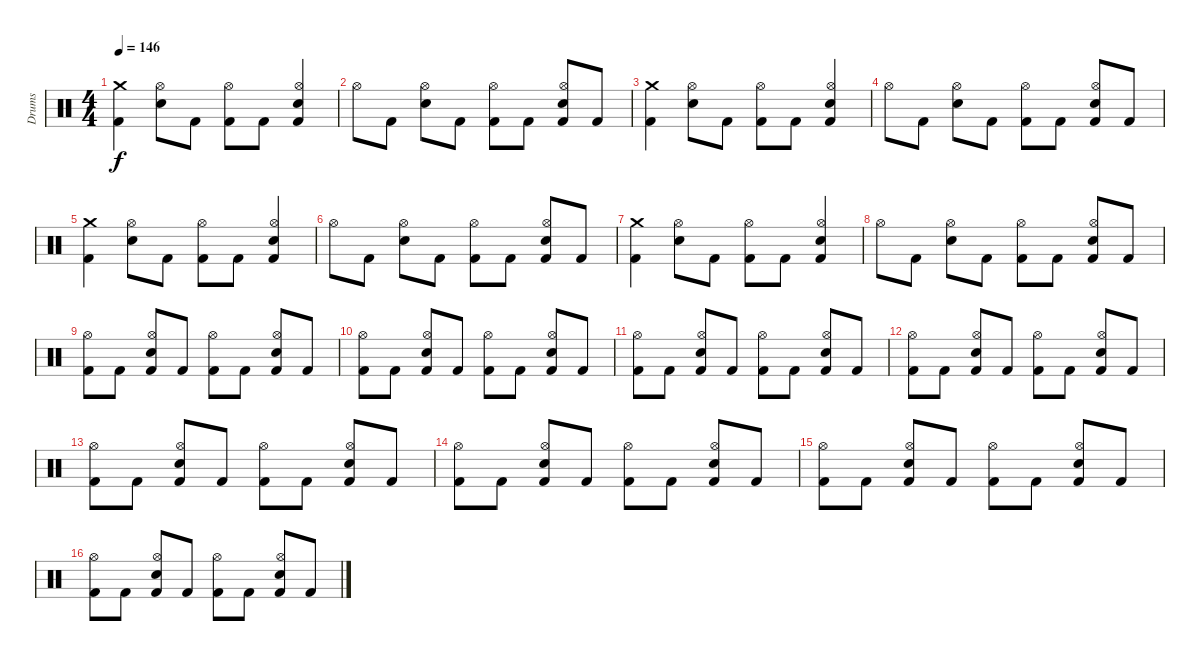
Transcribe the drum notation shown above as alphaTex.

\track ("Drums" "Drums") {instrument percussion}
\staff {score}
\articulation defaults
\ts (4 4)
\tempo 146
\clef neutral
\ks c
("Crash medium (hit)" "Kick (hit) 2").4{dy f} ("Hi-Hat (open)" "Snare (hit) 2").8 "Kick (hit) 2".8 ("Hi-Hat (open)" "Kick (hit) 2").8 "Kick (hit) 2".8 ("Hi-Hat (open)" "Snare (hit) 2" "Kick (hit) 2").4 |
"Hi-Hat (open)".8 "Kick (hit) 2".8 ("Hi-Hat (open)" "Snare (hit) 2").8 "Kick (hit) 2".8 ("Hi-Hat (open)" "Kick (hit) 2").8 "Kick (hit) 2".8 ("Hi-Hat (open)" "Snare (hit) 2" "Kick (hit) 2").8 "Kick (hit) 2".8 |
("Crash medium (hit)" "Kick (hit) 2").4 ("Hi-Hat (open)" "Snare (hit) 2").8 "Kick (hit) 2".8 ("Hi-Hat (open)" "Kick (hit) 2").8 "Kick (hit) 2".8 ("Hi-Hat (open)" "Snare (hit) 2" "Kick (hit) 2").4 |
"Hi-Hat (open)".8 "Kick (hit) 2".8 ("Hi-Hat (open)" "Snare (hit) 2").8 "Kick (hit) 2".8 ("Hi-Hat (open)" "Kick (hit) 2").8 "Kick (hit) 2".8 ("Hi-Hat (open)" "Snare (hit) 2" "Kick (hit) 2").8 "Kick (hit) 2".8 |
("Crash medium (hit)" "Kick (hit) 2").4 ("Hi-Hat (open)" "Snare (hit) 2").8 "Kick (hit) 2".8 ("Hi-Hat (open)" "Kick (hit) 2").8 "Kick (hit) 2".8 ("Hi-Hat (open)" "Snare (hit) 2" "Kick (hit) 2").4 |
"Hi-Hat (open)".8 "Kick (hit) 2".8 ("Hi-Hat (open)" "Snare (hit) 2").8 "Kick (hit) 2".8 ("Hi-Hat (open)" "Kick (hit) 2").8 "Kick (hit) 2".8 ("Hi-Hat (open)" "Snare (hit) 2" "Kick (hit) 2").8 "Kick (hit) 2".8 |
("Crash medium (hit)" "Kick (hit) 2").4 ("Hi-Hat (open)" "Snare (hit) 2").8 "Kick (hit) 2".8 ("Hi-Hat (open)" "Kick (hit) 2").8 "Kick (hit) 2".8 ("Hi-Hat (open)" "Snare (hit) 2" "Kick (hit) 2").4 |
"Hi-Hat (open)".8 "Kick (hit) 2".8 ("Hi-Hat (open)" "Snare (hit) 2").8 "Kick (hit) 2".8 ("Hi-Hat (open)" "Kick (hit) 2").8 "Kick (hit) 2".8 ("Hi-Hat (open)" "Snare (hit) 2" "Kick (hit) 2").8 "Kick (hit) 2".8 |
("Hi-Hat (open)" "Kick (hit) 2").8 "Kick (hit) 2".8 ("Hi-Hat (open)" "Snare (hit) 2" "Kick (hit) 2").8 "Kick (hit) 2".8 ("Hi-Hat (open)" "Kick (hit) 2").8 "Kick (hit) 2".8 ("Hi-Hat (open)" "Snare (hit) 2" "Kick (hit) 2").8 "Kick (hit) 2".8 |
("Hi-Hat (open)" "Kick (hit) 2").8 "Kick (hit) 2".8 ("Hi-Hat (open)" "Snare (hit) 2" "Kick (hit) 2").8 "Kick (hit) 2".8 ("Hi-Hat (open)" "Kick (hit) 2").8 "Kick (hit) 2".8 ("Hi-Hat (open)" "Snare (hit) 2" "Kick (hit) 2").8 "Kick (hit) 2".8 |
("Hi-Hat (open)" "Kick (hit) 2").8 "Kick (hit) 2".8 ("Hi-Hat (open)" "Snare (hit) 2" "Kick (hit) 2").8 "Kick (hit) 2".8 ("Hi-Hat (open)" "Kick (hit) 2").8 "Kick (hit) 2".8 ("Hi-Hat (open)" "Snare (hit) 2" "Kick (hit) 2").8 "Kick (hit) 2".8 |
("Hi-Hat (open)" "Kick (hit) 2").8 "Kick (hit) 2".8 ("Hi-Hat (open)" "Snare (hit) 2" "Kick (hit) 2").8 "Kick (hit) 2".8 ("Hi-Hat (open)" "Kick (hit) 2").8 "Kick (hit) 2".8 ("Hi-Hat (open)" "Snare (hit) 2" "Kick (hit) 2").8 "Kick (hit) 2".8 |
("Hi-Hat (open)" "Kick (hit) 2").8 "Kick (hit) 2".8 ("Hi-Hat (open)" "Snare (hit) 2" "Kick (hit) 2").8 "Kick (hit) 2".8 ("Hi-Hat (open)" "Kick (hit) 2").8 "Kick (hit) 2".8 ("Hi-Hat (open)" "Snare (hit) 2" "Kick (hit) 2").8 "Kick (hit) 2".8 |
("Hi-Hat (open)" "Kick (hit) 2").8 "Kick (hit) 2".8 ("Hi-Hat (open)" "Snare (hit) 2" "Kick (hit) 2").8 "Kick (hit) 2".8 ("Hi-Hat (open)" "Kick (hit) 2").8 "Kick (hit) 2".8 ("Hi-Hat (open)" "Snare (hit) 2" "Kick (hit) 2").8 "Kick (hit) 2".8 |
("Hi-Hat (open)" "Kick (hit) 2").8 "Kick (hit) 2".8 ("Hi-Hat (open)" "Snare (hit) 2" "Kick (hit) 2").8 "Kick (hit) 2".8 ("Hi-Hat (open)" "Kick (hit) 2").8 "Kick (hit) 2".8 ("Hi-Hat (open)" "Snare (hit) 2" "Kick (hit) 2").8 "Kick (hit) 2".8 |
("Hi-Hat (open)" "Kick (hit) 2").8 "Kick (hit) 2".8 ("Hi-Hat (open)" "Snare (hit) 2" "Kick (hit) 2").8 "Kick (hit) 2".8 ("Hi-Hat (open)" "Kick (hit) 2").8 "Kick (hit) 2".8 ("Hi-Hat (open)" "Snare (hit) 2" "Kick (hit) 2").8 "Kick (hit) 2".8
